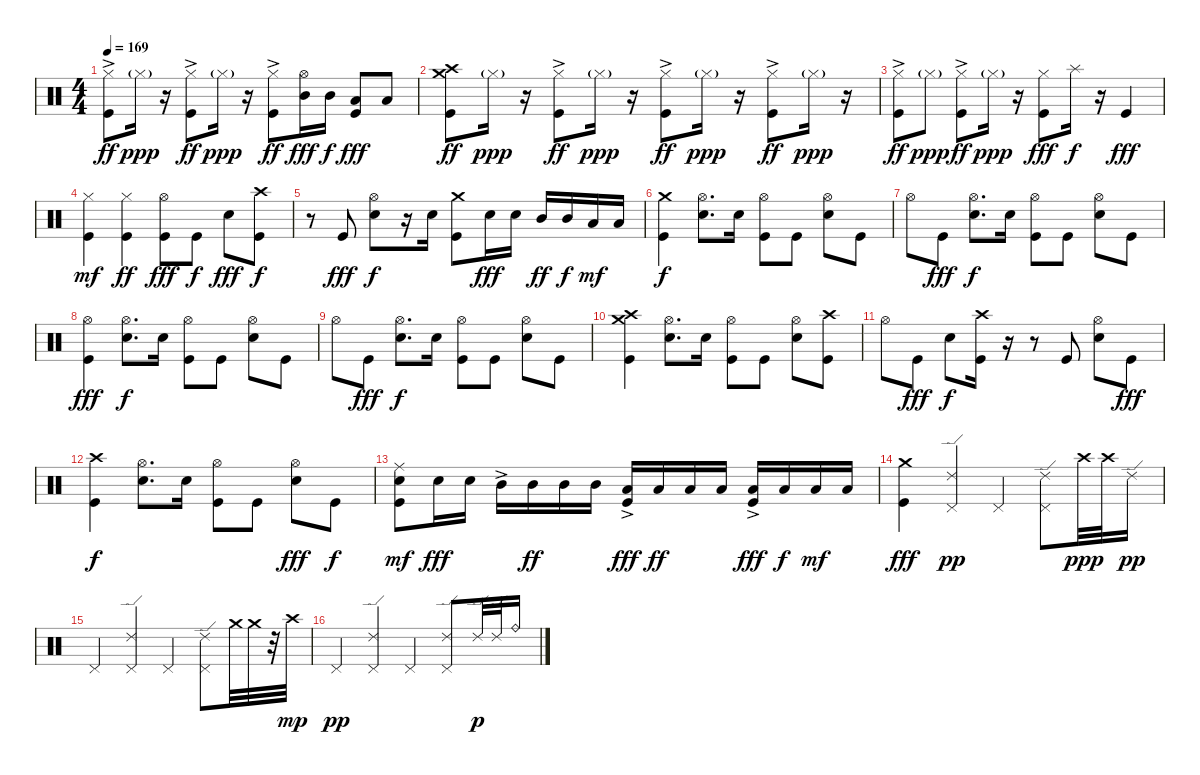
\track "" {instrument percussion}
\staff {score}
\articulation defaults
\ts (4 4)
\tempo 169
\clef neutral
\ks c
("Kick (hit)" "Hi-Hat (closed)"{ac}).8{dy ff} "Hi-Hat (closed)"{g}.16{dy ppp} r.16 ("Kick (hit)" "Hi-Hat (closed)"{ac}).8{dy ff} "Hi-Hat (closed)"{g}.16{dy ppp} r.16 ("Kick (hit)" "Hi-Hat (closed)"{ac}).8{dy ff} ("Mid Tom (hit)" "Hi-Hat (open)").16{dy fff} "Mid Tom (hit)".16{dy f} ("Low Tom (hit)" "Kick (hit)").8{dy fff} "Low Tom (hit)".8 |
("Crash high (hit)" "Kick (hit)" "Crash medium (hit)").8{dy ff} "Hi-Hat (closed)"{g}.16{dy ppp} r.16 ("Kick (hit)" "Hi-Hat (closed)"{ac}).8{dy ff} "Hi-Hat (closed)"{g}.16{dy ppp} r.16 ("Kick (hit)" "Hi-Hat (closed)"{ac}).8{dy ff} "Hi-Hat (closed)"{g}.16{dy ppp} r.16 ("Kick (hit)" "Hi-Hat (closed)"{ac}).8{dy ff} "Hi-Hat (closed)"{g}.16{dy ppp} r.16 |
("Kick (hit)" "Hi-Hat (closed)"{ac}).8{dy ff} "Hi-Hat (closed)"{g}.8{dy ppp} ("Kick (hit)" "Hi-Hat (closed)"{ac}).8{dy ff} "Hi-Hat (closed)"{g}.16{dy ppp} r.16 ("Hi-Hat (closed)" "Kick (hit)").8{dy fff} "Splash (hit)".16{dy f} r.16 "Kick (hit)".4{dy fff} |
("Hi-Hat (closed)" "Kick (hit)").4{dy mf} ("Kick (hit)" "Hi-Hat (closed)").4{dy ff} ("Kick (hit)" "Hi-Hat (open)").8{dy fff} "Kick (hit)".8{dy f} "Snare (hit) 2".8{dy fff} ("Crash high (hit)" "Kick (hit)").8{dy f} |
r.8 "Kick (hit)".8{dy fff} ("Snare (hit) 2" "Hi-Hat (open)").8{dy f} r.16 "Snare (hit) 2".16 ("Crash medium (hit)" "Kick (hit)").8 "Snare (hit) 2".16{dy fff} "Snare (hit) 2".16 "Mid Tom (hit)".16{dy ff} "Mid Tom (hit)".16{dy f} "Low Tom (hit)".16{dy mf} "Low Tom (hit)".16 |
("Crash medium (hit)" "Kick (hit)").4{dy f} ("Hi-Hat (open)" "Snare (hit) 2").8{d} "Snare (hit) 2".16 ("Hi-Hat (open)" "Kick (hit)").8 "Kick (hit)".8 ("Hi-Hat (open)" "Snare (hit) 2").8 "Kick (hit)".8 |
"Hi-Hat (open)".8 "Kick (hit)".8{dy fff} ("Hi-Hat (open)" "Snare (hit) 2").8{d dy f} "Snare (hit) 2".16 ("Hi-Hat (open)" "Kick (hit)").8 "Kick (hit)".8 ("Hi-Hat (open)" "Snare (hit) 2").8 "Kick (hit)".8 |
("Hi-Hat (open)" "Kick (hit)").4{dy fff} ("Hi-Hat (open)" "Snare (hit) 2").8{d dy f} "Snare (hit) 2".16 ("Hi-Hat (open)" "Kick (hit)").8 "Kick (hit)".8 ("Hi-Hat (open)" "Snare (hit) 2").8 "Kick (hit)".8 |
"Hi-Hat (open)".8 "Kick (hit)".8{dy fff} ("Hi-Hat (open)" "Snare (hit) 2").8{d dy f} "Snare (hit) 2".16 ("Hi-Hat (open)" "Kick (hit)").8 "Kick (hit)".8 ("Hi-Hat (open)" "Snare (hit) 2").8 "Kick (hit)".8 |
("Crash high (hit)" "Crash medium (hit)" "Kick (hit)").4 ("Hi-Hat (open)" "Snare (hit) 2").8{d} "Snare (hit) 2".16 ("Hi-Hat (open)" "Kick (hit)").8 "Kick (hit)".8 ("Hi-Hat (open)" "Snare (hit) 2").8 ("Crash high (hit)" "Kick (hit)").8 |
"Hi-Hat (open)".8 "Kick (hit)".8{dy fff} "Snare (hit) 2".8{dy f} ("Crash high (hit)" "Kick (hit)").16 r.16 r.8 "Kick (hit)".8 ("Hi-Hat (open)" "Snare (hit) 2").8 "Kick (hit)".8{dy fff} |
("Crash high (hit)" "Kick (hit)").4{dy f} ("Hi-Hat (open)" "Snare (hit) 2").8{d} "Snare (hit) 2".16 ("Hi-Hat (open)" "Kick (hit)").8 "Kick (hit)".8 ("Hi-Hat (open)" "Snare (hit) 2").8{dy fff} "Kick (hit)".8{dy f} |
("Snare (hit) 2" "Ride (middle)" "Kick (hit)").8{dy mf} "Snare (hit) 2".16{dy fff} "Snare (hit) 2".16 "Mid Tom (hit)"{ac}.16 "Mid Tom (hit)".16{dy ff} "Mid Tom (hit)".16 "Mid Tom (hit)".16 ("Low Tom (hit)"{ac} "Kick (hit)").16{dy fff} "Low Tom (hit)".16{dy ff} "Low Tom (hit)".16 "Low Tom (hit)".16 ("Low Tom (hit)"{ac} "Kick (hit)").16{dy fff} "Low Tom (hit)".16{dy f} "Low Tom (hit)".16{dy mf} "Low Tom (hit)".16 |
("Crash medium (hit)" "Kick (hit)").4{dy fff} ("Ride (edge) 2" "Pedal Hi-Hat (hit)").4{dy pp} "Pedal Hi-Hat (hit)".4 ("Ride (edge) 2" "Pedal Hi-Hat (hit)").8 "Crash high (hit)".32{dy ppp} "Crash high (hit)".32 "Ride (edge) 2".16{dy pp} |
"Pedal Hi-Hat (hit)".4 ("Ride (edge) 2" "Pedal Hi-Hat (hit)").4 "Pedal Hi-Hat (hit)".4 ("Ride (edge) 2" "Pedal Hi-Hat (hit)").8 "Crash medium (hit)".32 "Crash medium (hit)".32 r.32 "Crash high (hit)".32{dy mp} |
"Pedal Hi-Hat (hit)".4{dy pp} ("Ride (edge) 2" "Pedal Hi-Hat (hit)").4 "Pedal Hi-Hat (hit)".4 ("Ride (edge) 2" "Pedal Hi-Hat (hit)").8 "Ride (edge) 2".32{dy p} "Ride (edge) 2".32 "Ride (bell)".16
